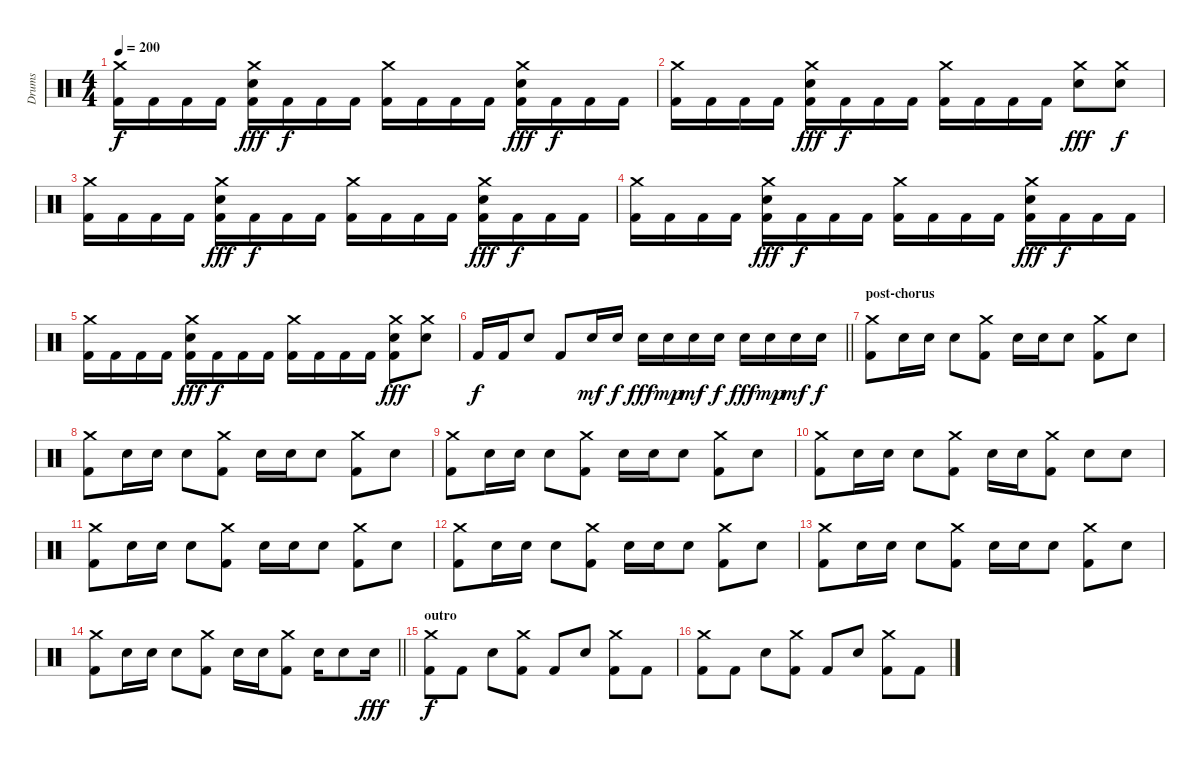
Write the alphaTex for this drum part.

\track ("Drums" "Drums") {instrument percussion}
\staff {score}
\articulation defaults
\ts (4 4)
\tempo 200
\clef neutral
\ks c
("Crash medium (hit)" "Kick (hit) 2").16{dy f} "Kick (hit) 2".16 "Kick (hit) 2".16 "Kick (hit) 2".16 ("Crash medium (hit)" "Electric Snare (hit)" "Kick (hit) 2").16{dy fff} "Kick (hit) 2".16{dy f} "Kick (hit) 2".16 "Kick (hit) 2".16 ("Crash medium (hit)" "Kick (hit) 2").16 "Kick (hit) 2".16 "Kick (hit) 2".16 "Kick (hit) 2".16 ("Crash medium (hit)" "Electric Snare (hit)" "Kick (hit) 2").16{dy fff} "Kick (hit) 2".16{dy f} "Kick (hit) 2".16 "Kick (hit) 2".16 |
("Crash medium (hit)" "Kick (hit) 2").16 "Kick (hit) 2".16 "Kick (hit) 2".16 "Kick (hit) 2".16 ("Crash medium (hit)" "Electric Snare (hit)" "Kick (hit) 2").16{dy fff} "Kick (hit) 2".16{dy f} "Kick (hit) 2".16 "Kick (hit) 2".16 ("Crash medium (hit)" "Kick (hit) 2").16 "Kick (hit) 2".16 "Kick (hit) 2".16 "Kick (hit) 2".16 ("Crash medium (hit)" "Electric Snare (hit)").8{dy fff} ("Crash medium (hit)" "Electric Snare (hit)").8{dy f} |
("Crash medium (hit)" "Kick (hit) 2").16 "Kick (hit) 2".16 "Kick (hit) 2".16 "Kick (hit) 2".16 ("Crash medium (hit)" "Electric Snare (hit)" "Kick (hit) 2").16{dy fff} "Kick (hit) 2".16{dy f} "Kick (hit) 2".16 "Kick (hit) 2".16 ("Crash medium (hit)" "Kick (hit) 2").16 "Kick (hit) 2".16 "Kick (hit) 2".16 "Kick (hit) 2".16 ("Crash medium (hit)" "Electric Snare (hit)" "Kick (hit) 2").16{dy fff} "Kick (hit) 2".16{dy f} "Kick (hit) 2".16 "Kick (hit) 2".16 |
("Crash medium (hit)" "Kick (hit) 2").16 "Kick (hit) 2".16 "Kick (hit) 2".16 "Kick (hit) 2".16 ("Crash medium (hit)" "Electric Snare (hit)" "Kick (hit) 2").16{dy fff} "Kick (hit) 2".16{dy f} "Kick (hit) 2".16 "Kick (hit) 2".16 ("Crash medium (hit)" "Kick (hit) 2").16 "Kick (hit) 2".16 "Kick (hit) 2".16 "Kick (hit) 2".16 ("Crash medium (hit)" "Electric Snare (hit)" "Kick (hit) 2").16{dy fff} "Kick (hit) 2".16{dy f} "Kick (hit) 2".16 "Kick (hit) 2".16 |
("Crash medium (hit)" "Kick (hit) 2").16 "Kick (hit) 2".16 "Kick (hit) 2".16 "Kick (hit) 2".16 ("Crash medium (hit)" "Electric Snare (hit)" "Kick (hit) 2").16{dy fff} "Kick (hit) 2".16{dy f} "Kick (hit) 2".16 "Kick (hit) 2".16 ("Crash medium (hit)" "Kick (hit) 2").16 "Kick (hit) 2".16 "Kick (hit) 2".16 "Kick (hit) 2".16 ("Crash medium (hit)" "Electric Snare (hit)" "Kick (hit) 2").8{dy fff} ("Crash medium (hit)" "Electric Snare (hit)").8 |
\barLineRight lightlight "Kick (hit) 2".16{dy f} "Kick (hit) 2".16 "Electric Snare (hit)".8 "Kick (hit) 2".8 "Electric Snare (hit)".16{dy mf} "Electric Snare (hit)".16{dy f} "Electric Snare (hit)".16{dy fff} "Electric Snare (hit)".16{dy mp} "Electric Snare (hit)".16{dy mf} "Electric Snare (hit)".16{dy f} "Electric Snare (hit)".16{dy fff} "Electric Snare (hit)".16{dy mp} "Electric Snare (hit)".16{dy mf} "Electric Snare (hit)".16{dy f}
|
\section ("" "post-chorus")
("Crash medium (hit)" "Kick (hit) 2").8 "Electric Snare (hit)".16 "Electric Snare (hit)".16 "Electric Snare (hit)".8 ("Crash medium (hit)" "Kick (hit) 2").8 "Electric Snare (hit)".16 "Electric Snare (hit)".16 "Electric Snare (hit)".8 ("Crash medium (hit)" "Kick (hit) 2").8 "Electric Snare (hit)".8 |
("Crash medium (hit)" "Kick (hit) 2").8 "Electric Snare (hit)".16 "Electric Snare (hit)".16 "Electric Snare (hit)".8 ("Crash medium (hit)" "Kick (hit) 2").8 "Electric Snare (hit)".16 "Electric Snare (hit)".16 "Electric Snare (hit)".8 ("Crash medium (hit)" "Kick (hit) 2").8 "Electric Snare (hit)".8 |
("Crash medium (hit)" "Kick (hit) 2").8 "Electric Snare (hit)".16 "Electric Snare (hit)".16 "Electric Snare (hit)".8 ("Crash medium (hit)" "Kick (hit) 2").8 "Electric Snare (hit)".16 "Electric Snare (hit)".16 "Electric Snare (hit)".8 ("Crash medium (hit)" "Kick (hit) 2").8 "Electric Snare (hit)".8 |
("Crash medium (hit)" "Kick (hit) 2").8 "Electric Snare (hit)".16 "Electric Snare (hit)".16 "Electric Snare (hit)".8 ("Crash medium (hit)" "Kick (hit) 2").8 "Electric Snare (hit)".16 "Electric Snare (hit)".16 ("Crash medium (hit)" "Kick (hit) 2").8 "Electric Snare (hit)".8 "Electric Snare (hit)".8 |
("Crash medium (hit)" "Kick (hit) 2").8 "Electric Snare (hit)".16 "Electric Snare (hit)".16 "Electric Snare (hit)".8 ("Crash medium (hit)" "Kick (hit) 2").8 "Electric Snare (hit)".16 "Electric Snare (hit)".16 "Electric Snare (hit)".8 ("Crash medium (hit)" "Kick (hit) 2").8 "Electric Snare (hit)".8 |
("Crash medium (hit)" "Kick (hit) 2").8 "Electric Snare (hit)".16 "Electric Snare (hit)".16 "Electric Snare (hit)".8 ("Crash medium (hit)" "Kick (hit) 2").8 "Electric Snare (hit)".16 "Electric Snare (hit)".16 "Electric Snare (hit)".8 ("Crash medium (hit)" "Kick (hit) 2").8 "Electric Snare (hit)".8 |
("Crash medium (hit)" "Kick (hit) 2").8 "Electric Snare (hit)".16 "Electric Snare (hit)".16 "Electric Snare (hit)".8 ("Crash medium (hit)" "Kick (hit) 2").8 "Electric Snare (hit)".16 "Electric Snare (hit)".16 "Electric Snare (hit)".8 ("Crash medium (hit)" "Kick (hit) 2").8 "Electric Snare (hit)".8 |
\barLineRight lightlight
("Crash medium (hit)" "Kick (hit) 2").8 "Electric Snare (hit)".16 "Electric Snare (hit)".16 "Electric Snare (hit)".8 ("Crash medium (hit)" "Kick (hit) 2").8 "Electric Snare (hit)".16 "Electric Snare (hit)".16 ("Crash medium (hit)" "Kick (hit) 2").8 "Electric Snare (hit)".16 "Electric Snare (hit)".8 "Electric Snare (hit)".16{dy fff} |
\section ("" "outro")
("Crash medium (hit)" "Kick (hit) 2").8{dy f} "Kick (hit) 2".8 "Electric Snare (hit)".8 ("Crash medium (hit)" "Kick (hit) 2").8 "Kick (hit) 2".8 "Electric Snare (hit)".8 ("Crash medium (hit)" "Kick (hit) 2").8 "Kick (hit) 2".8 |
("Crash medium (hit)" "Kick (hit) 2").8 "Kick (hit) 2".8 "Electric Snare (hit)".8 ("Crash medium (hit)" "Kick (hit) 2").8 "Kick (hit) 2".8 "Electric Snare (hit)".8 ("Crash medium (hit)" "Kick (hit) 2").8 "Kick (hit) 2".8
